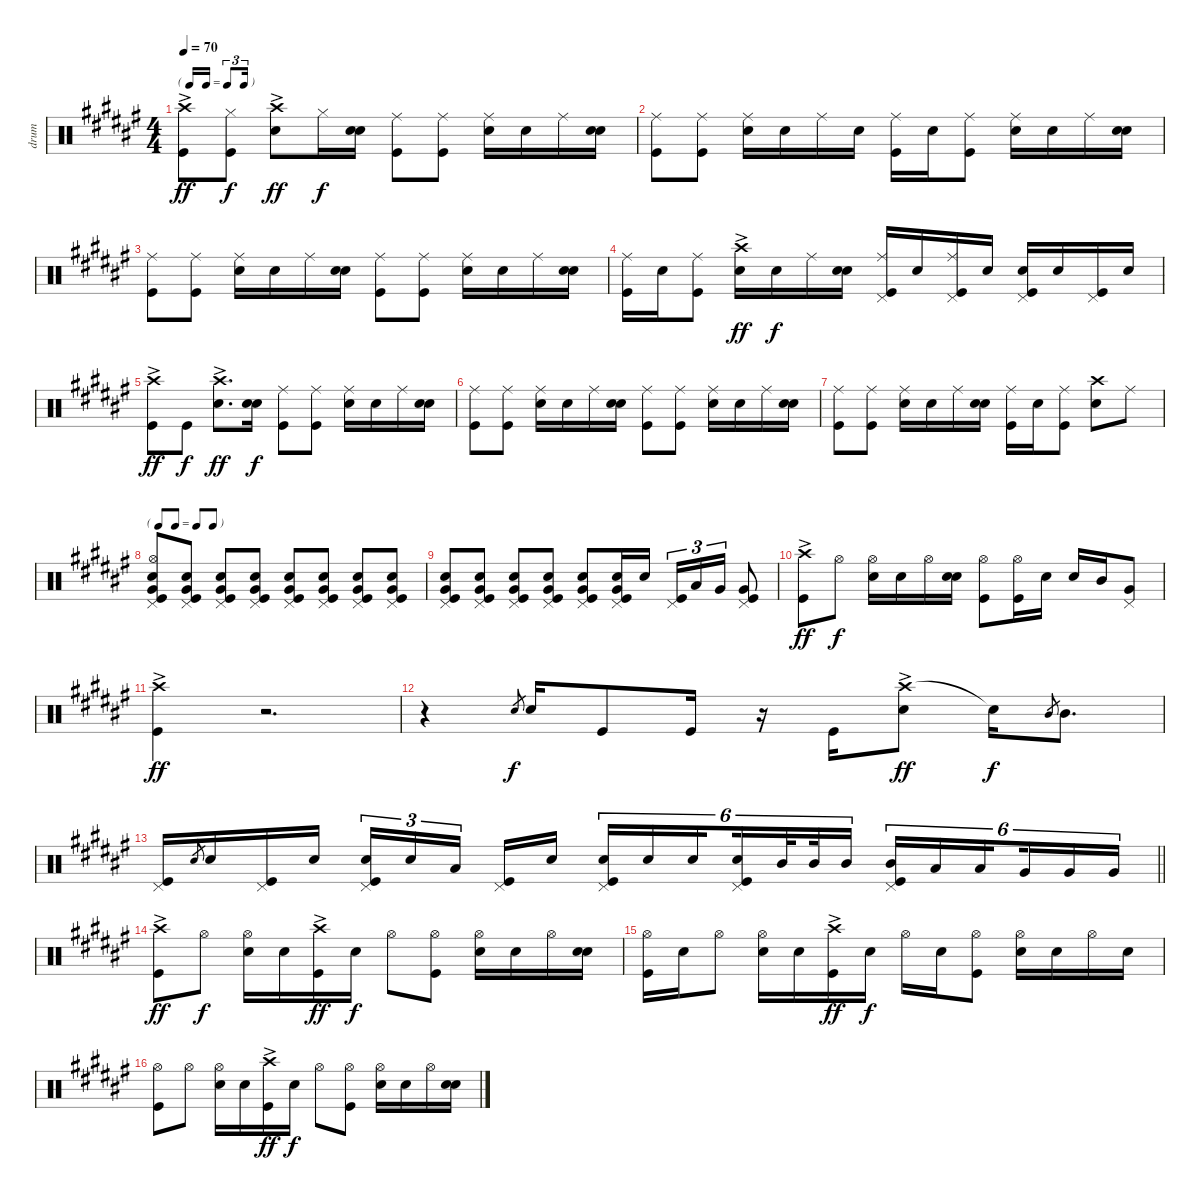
\track ("drum" "drum") {instrument percussion}
\staff {score}
\articulation defaults
\ts (4 4)
\tf triplet16th
\section ("" "")
\tempo 70
\clef neutral
\ks f#
("Crash high (hit)"{ac} "Kick (hit)").8{dy ff} ("Hi-Hat (closed)" "Kick (hit)").8{dy f} ("Crash high (hit)"{ac} "Snare (hit) 2").8{dy ff} "Hi-Hat (closed)".16{dy f} ("Snare (hit) 2" "Snare (hit) 2").16 ("Ride (middle)" "Kick (hit)").8 ("Ride (middle)" "Kick (hit)").8 ("Ride (middle)" "Snare (hit) 2").16 "Snare (hit) 2".16 "Ride (middle)".16 ("Snare (hit) 2" "Snare (hit) 2").16 |
("Ride (middle)" "Kick (hit)").8 ("Ride (middle)" "Kick (hit)").8 ("Ride (middle)" "Snare (hit) 2").16 "Snare (hit) 2".16 "Ride (middle)".16 "Snare (hit) 2".16 ("Ride (middle)" "Kick (hit)").16 "Snare (hit) 2".16 ("Ride (middle)" "Kick (hit)").8 ("Ride (middle)" "Snare (hit) 2").16 "Snare (hit) 2".16 "Ride (middle)".16 ("Snare (hit) 2" "Snare (hit) 2").16 |
("Ride (middle)" "Kick (hit)").8 ("Ride (middle)" "Kick (hit)").8 ("Ride (middle)" "Snare (hit) 2").16 "Snare (hit) 2".16 "Ride (middle)".16 ("Snare (hit) 2" "Snare (hit) 2").16 ("Ride (middle)" "Kick (hit)").8 ("Ride (middle)" "Kick (hit)").8 ("Ride (middle)" "Snare (hit) 2").16 "Snare (hit) 2".16 "Ride (middle)".16 ("Snare (hit) 2" "Snare (hit) 2").16 |
("Ride (middle)" "Kick (hit)").16 "Snare (hit) 2".16 ("Ride (middle)" "Kick (hit)").8 ("Crash high (hit)"{ac} "Snare (hit) 2").16{dy ff} "Snare (hit) 2".16{dy f} "Ride (middle)".16 ("Snare (hit) 2" "Snare (hit) 2").16 ("Ride (middle)" "Kick (hit)" "Pedal Hi-Hat (hit)").16 "Snare (hit) 2".16 ("Ride (middle)" "Kick (hit)" "Pedal Hi-Hat (hit)").16 "Snare (hit) 2".16 ("Snare (hit) 2" "Kick (hit)" "Pedal Hi-Hat (hit)").16 "Snare (hit) 2".16 ("Kick (hit)" "Pedal Hi-Hat (hit)").16 "Snare (hit) 2".16 |
("Crash high (hit)"{ac} "Kick (hit)").8{dy ff} "Kick (hit)".8{dy f} ("Crash high (hit)"{ac} "Snare (hit) 2").8{d dy ff} ("Snare (hit) 2" "Snare (hit) 2").16{dy f} ("Ride (middle)" "Kick (hit)").8 ("Ride (middle)" "Kick (hit)").8 ("Ride (middle)" "Snare (hit) 2").16 "Snare (hit) 2".16 "Ride (middle)".16 ("Snare (hit) 2" "Snare (hit) 2").16 |
("Ride (middle)" "Kick (hit)").8 ("Ride (middle)" "Kick (hit)").8 ("Ride (middle)" "Snare (hit) 2").16 "Snare (hit) 2".16 "Ride (middle)".16 ("Snare (hit) 2" "Snare (hit) 2").16 ("Ride (middle)" "Kick (hit)").8 ("Ride (middle)" "Kick (hit)").8 ("Ride (middle)" "Snare (hit) 2").16 "Snare (hit) 2".16 "Ride (middle)".16 ("Snare (hit) 2" "Snare (hit) 2").16 |
("Ride (middle)" "Kick (hit)").8 ("Ride (middle)" "Kick (hit)").8 ("Ride (middle)" "Snare (hit) 2").16 "Snare (hit) 2".16 "Ride (middle)".16 ("Snare (hit) 2" "Snare (hit) 2").16 ("Ride (middle)" "Kick (hit)").16 "Snare (hit) 2".16 ("Ride (middle)" "Kick (hit)").8 ("Crash high (hit)" "Snare (hit) 2").8 "Ride (middle)".8 |
\tf none
("Hi-Hat (open)" "Snare (hit) 2" "Very Low Tom (hit)" "Kick (hit)" "Pedal Hi-Hat (hit)").8 ("Snare (hit) 2" "Very Low Tom (hit)" "Kick (hit)" "Pedal Hi-Hat (hit)").8{volume 8} ("Snare (hit) 2" "Very Low Tom (hit)" "Kick (hit)" "Pedal Hi-Hat (hit)").8{volume 15} ("Snare (hit) 2" "Very Low Tom (hit)" "Kick (hit)" "Pedal Hi-Hat (hit)").8 ("Snare (hit) 2" "Very Low Tom (hit)" "Kick (hit)" "Pedal Hi-Hat (hit)").8 ("Snare (hit) 2" "Very Low Tom (hit)" "Kick (hit)" "Pedal Hi-Hat (hit)").8 ("Snare (hit) 2" "Very Low Tom (hit)" "Kick (hit)" "Pedal Hi-Hat (hit)").8 ("Snare (hit) 2" "Very Low Tom (hit)" "Kick (hit)" "Pedal Hi-Hat (hit)").8 |
("Snare (hit) 2" "Very Low Tom (hit)" "Kick (hit)" "Pedal Hi-Hat (hit)").8 ("Snare (hit) 2" "Very Low Tom (hit)" "Kick (hit)" "Pedal Hi-Hat (hit)").8 ("Snare (hit) 2" "Very Low Tom (hit)" "Kick (hit)" "Pedal Hi-Hat (hit)").8 ("Snare (hit) 2" "Very Low Tom (hit)" "Kick (hit)" "Pedal Hi-Hat (hit)").8 ("Snare (hit) 2" "Very Low Tom (hit)" "Kick (hit)" "Pedal Hi-Hat (hit)").8 ("Snare (hit) 2" "Very Low Tom (hit)" "Kick (hit)" "Pedal Hi-Hat (hit)").16 "Snare (hit) 2".16 ("Kick (hit)" "Pedal Hi-Hat (hit)").16{tu (3 2)} "Low Tom (hit)".16{tu (3 2)} "Very Low Tom (hit)".16{tu (3 2)} ("Very Low Tom (hit)" "Kick (hit)" "Pedal Hi-Hat (hit)").8 |
("Crash high (hit)"{ac} "Kick (hit)").8{dy ff} "Hi-Hat (open)".8{dy f} ("Hi-Hat (open)" "Snare (hit) 2").16 "Snare (hit) 2".16 "Hi-Hat (open)".16 ("Snare (hit) 2" "Snare (hit) 2").16 ("Hi-Hat (open)" "Kick (hit)").8 ("Hi-Hat (open)" "Kick (hit)").16 "Snare (hit) 2".16 "Snare (hit) 2".16 "Mid Tom (hit)".16 ("Very Low Tom (hit)" "Pedal Hi-Hat (hit)").8 |
("Crash high (hit)"{ac} "Kick (hit)").4{dy ff} r.2{d} |
r.4 "Snare (hit) 2".8{gr dy f} "Snare (hit) 2".16 "Kick (hit)".8 "Kick (hit)".16 r.16 "Kick (hit)".16 ("Crash high (hit)"{ac} "Snare (hit) 2").8{dy ff} "Snare (hit)"{t}.16{dy f} "Mid Tom (hit)".8{gr} "Mid Tom (hit)".8{d} |
\barLineRight lightlight
("Kick (hit)" "Pedal Hi-Hat (hit)").16 "Snare (hit) 2".8{gr} "Snare (hit) 2".16 ("Kick (hit)" "Pedal Hi-Hat (hit)").16 "Snare (hit) 2".16 ("Snare (hit) 2" "Kick (hit)" "Pedal Hi-Hat (hit)").16{tu (3 2)} "Snare (hit) 2".16{tu (3 2)} "Low Tom (hit)".16{tu (3 2) beam splitsecondary} ("Kick (hit)" "Pedal Hi-Hat (hit)").16 "Snare (hit) 2".16 ("Snare (hit) 2" "Kick (hit)" "Pedal Hi-Hat (hit)").16{tu (6 4)} "Snare (hit) 2".16{tu (6 4)} "Snare (hit) 2".16{tu (6 4) beam splitsecondary} ("Snare (hit) 2" "Kick (hit)" "Pedal Hi-Hat (hit)").16{tu (6 4)} "Mid Tom (hit)".32{tu (6 4) beam splitsecondary} "Mid Tom (hit)".32{tu (6 4)} "Mid Tom (hit)".16{tu (6 4)} ("Mid Tom (hit)" "Kick (hit)" "Pedal Hi-Hat (hit)").16{tu (6 4)} "Low Tom (hit)".16{tu (6 4)} "Low Tom (hit)".16{tu (6 4) beam splitsecondary} "Very Low Tom (hit)".16{tu (6 4)} "Very Low Tom (hit)".16{tu (6 4)} "Very Low Tom (hit)".16{tu (6 4)} |
\section ("" "")
("Crash high (hit)"{ac} "Kick (hit)").8{dy ff} "Hi-Hat (open)".8{dy f} ("Hi-Hat (open)" "Snare (hit) 2").16 "Snare (hit) 2".16 ("Crash high (hit)"{ac} "Kick (hit)").16{dy ff} "Snare (hit) 2".16{dy f} "Hi-Hat (open)".8 ("Hi-Hat (open)" "Kick (hit)").8 ("Hi-Hat (open)" "Snare (hit) 2").16 "Snare (hit) 2".16 "Hi-Hat (open)".16 ("Snare (hit) 2" "Snare (hit) 2").16 |
("Hi-Hat (open)" "Kick (hit)").16 "Snare (hit) 2".16 "Hi-Hat (open)".8 ("Hi-Hat (open)" "Snare (hit) 2").16 "Snare (hit) 2".16 ("Crash high (hit)"{ac} "Kick (hit)").16{dy ff} "Snare (hit) 2".16{dy f} "Hi-Hat (open)".16 "Snare (hit) 2".16 ("Hi-Hat (open)" "Kick (hit)").8 ("Hi-Hat (open)" "Snare (hit) 2").16 "Snare (hit) 2".16 "Hi-Hat (open)".16 "Snare (hit) 2".16 |
("Hi-Hat (open)" "Kick (hit)").8 "Hi-Hat (open)".8 ("Hi-Hat (open)" "Snare (hit) 2").16 "Snare (hit) 2".16 ("Crash high (hit)"{ac} "Kick (hit)").16{dy ff} "Snare (hit) 2".16{dy f} "Hi-Hat (open)".8 ("Hi-Hat (open)" "Kick (hit)").8 ("Hi-Hat (open)" "Snare (hit) 2").16 "Snare (hit) 2".16 "Hi-Hat (open)".16 ("Snare (hit) 2" "Snare (hit) 2").16
